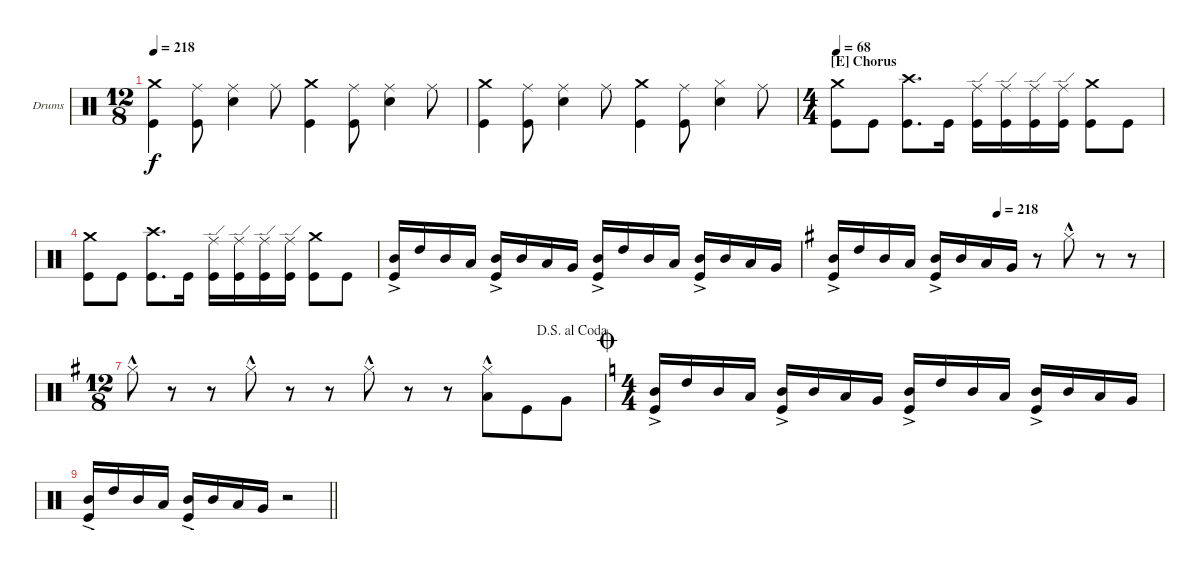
\bracketExtendMode nobrackets
\firstSystemTrackNameOrientation horizontal
\otherSystemsTrackNameOrientation horizontal
\defaultBarNumberDisplay FirstOfSystem
\track ("Drums" "Drums") {instrument percussion}
\staff {score}
\articulation defaults
\ts (12 8)
\tempo 218
\clef neutral
\ks c
("Crash medium (hit)" "Kick (hit)").4{dy f} ("Ride (middle)" "Kick (hit)").8 ("Ride (middle)" "Snare (hit) 2").4 "Ride (middle)".8 ("Crash medium (hit)" "Kick (hit)").4 ("Ride (middle)" "Kick (hit)").8 ("Ride (middle)" "Snare (hit) 2").4 "Ride (middle)".8 |
("Crash medium (hit)" "Kick (hit)").4 ("Ride (middle)" "Kick (hit)").8 ("Ride (middle)" "Snare (hit) 2").4 "Ride (middle)".8 ("Crash medium (hit)" "Kick (hit)").4 ("Ride (middle)" "Kick (hit)").8 ("Snare (hit) 2" "Hi-Hat (closed)").4 "Ride (middle)".8 |
\ts (4 4)
\section ("E" "Chorus")
\tempo 68
("Crash medium (hit)" "Kick (hit)").8 "Kick (hit)".8 ("Crash high (hit)" "Kick (hit)").8{d} "Kick (hit)".16 ("Ride (edge)" "Kick (hit)").16 ("Ride (edge)" "Kick (hit)").16 ("Ride (edge)" "Kick (hit)").16 ("Ride (edge)" "Kick (hit)").16 ("Crash medium (hit)" "Kick (hit)").8 "Kick (hit)".8 |
("Crash medium (hit)" "Kick (hit)").8 "Kick (hit)".8 ("Crash high (hit)" "Kick (hit)").8{d} "Kick (hit)".16 ("Ride (edge)" "Kick (hit)").16 ("Ride (edge)" "Kick (hit)").16 ("Ride (edge)" "Kick (hit)").16 ("Ride (edge)" "Kick (hit)").16 ("Crash medium (hit)" "Kick (hit)").8 "Kick (hit)".8 |
("Kick (hit)" "Mid Tom (hit)"{ac}).16 "High Tom (hit)".16 "Mid Tom (hit)".16 "Low Tom (hit)".16 ("Mid Tom (hit)"{ac} "Kick (hit)"{ac}).16 "Mid Tom (hit)".16 "Low Tom (hit)".16 "Very Low Tom (hit)".16 ("Kick (hit)"{ac} "Mid Tom (hit)"{ac}).16 "High Tom (hit)".16 "Mid Tom (hit)".16 "Low Tom (hit)".16 ("Mid Tom (hit)"{ac} "Kick (hit)"{ac}).16 "Mid Tom (hit)".16 "Low Tom (hit)".16 "Very Low Tom (hit)".16 |
\tempo (218 0.5)
\ks g
("Kick (hit)"{ac} "Mid Tom (hit)"{ac}).16 "High Tom (hit)".16 "Mid Tom (hit)".16 "Low Tom (hit)".16 ("Mid Tom (hit)"{ac} "Kick (hit)"{ac}).16 "Mid Tom (hit)".16 "Low Tom (hit)".16 "Very Low Tom (hit)".16 r.8 "Hi-Hat (closed)"{hac}.8 r.8 r.8 |
\ts (12 8)
\jump dalsegnoalcoda "Hi-Hat (closed)"{hac}.8
r.8 r.8 "Hi-Hat (closed)"{hac}.8 r.8 r.8 "Hi-Hat (closed)"{hac}.8 r.8 r.8 ("Low Tom (hit)" "Hi-Hat (closed)"{hac}).8 "Kick (hit)".8 "Very Low Tom (hit)".8 |
\ts (4 4)
\jump coda
\ks c
("Kick (hit)" "Mid Tom (hit)"{ac}).16 "High Tom (hit)".16 "Mid Tom (hit)".16 "Low Tom (hit)".16 ("Mid Tom (hit)"{ac} "Kick (hit)"{ac}).16 "Mid Tom (hit)".16 "Low Tom (hit)".16 "Very Low Tom (hit)".16 ("Kick (hit)"{ac} "Mid Tom (hit)"{ac}).16 "High Tom (hit)".16 "Mid Tom (hit)".16 "Low Tom (hit)".16 ("Mid Tom (hit)"{ac} "Kick (hit)"{ac}).16 "Mid Tom (hit)".16 "Low Tom (hit)".16 "Very Low Tom (hit)".16 |
\barLineRight lightlight
("Kick (hit)"{ac} "Mid Tom (hit)"{ac}).16 "High Tom (hit)".16 "Mid Tom (hit)".16 "Low Tom (hit)".16 ("Mid Tom (hit)"{ac} "Kick (hit)"{ac}).16 "Mid Tom (hit)".16 "Low Tom (hit)".16 "Very Low Tom (hit)".16 r.2
